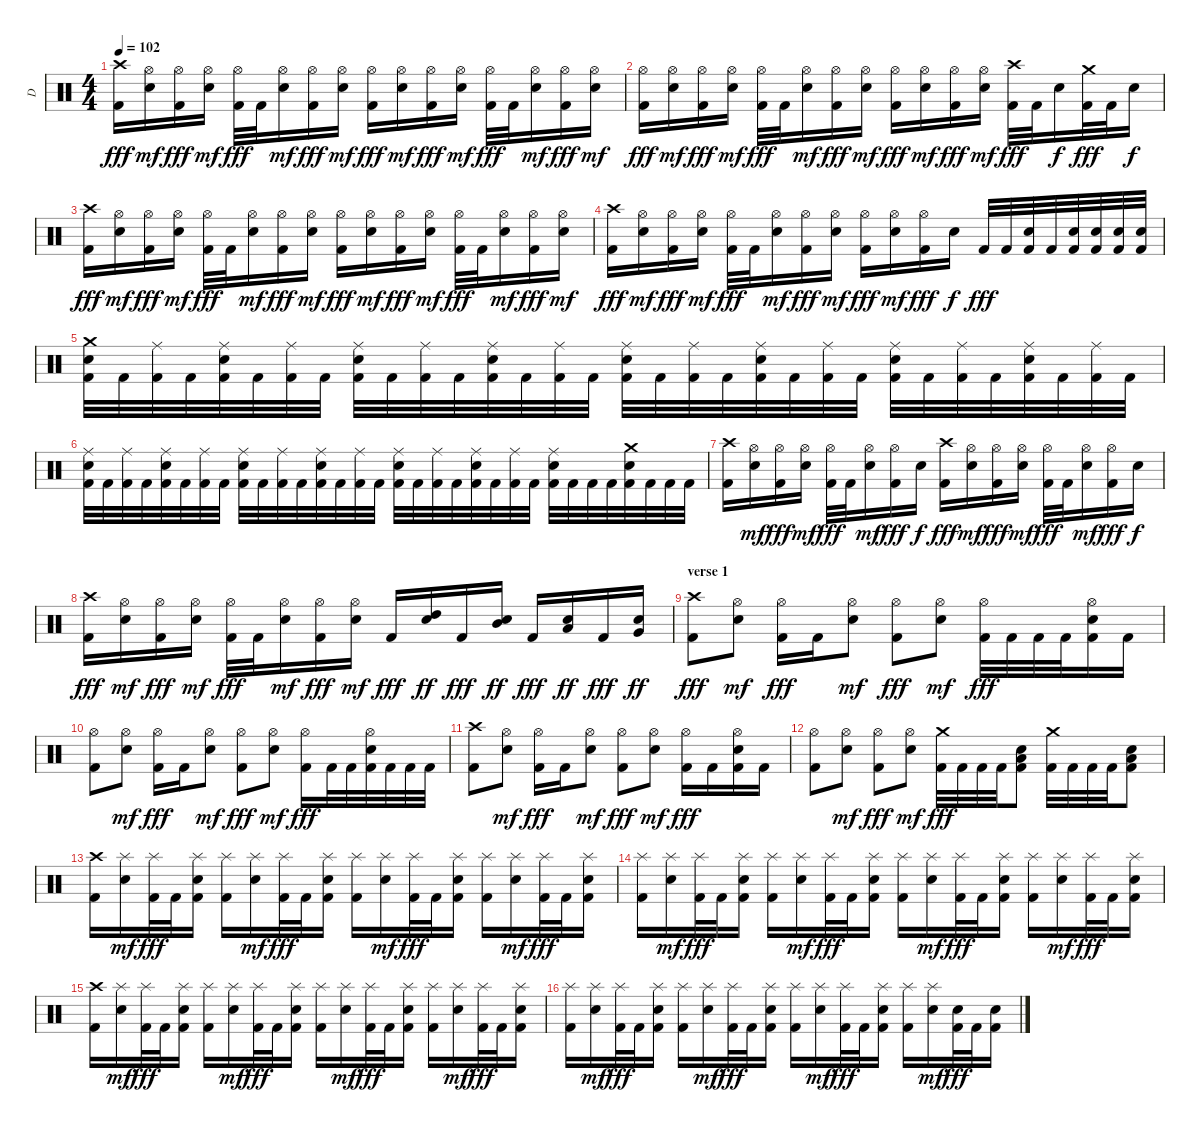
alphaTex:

\track ("D" "D") {instrument percussion}
\staff {score}
\articulation defaults
\ts (4 4)
\section ("" "")
\tempo 102
\clef neutral
\ks c
("Crash high (hit)" "Kick (hit) 2").16{dy fff} ("Hi-Hat (open)" "Snare (hit) 2").16{dy mf} ("Hi-Hat (open)" "Kick (hit) 2").16{dy fff} ("Hi-Hat (open)" "Snare (hit) 2").16{dy mf} ("Hi-Hat (open)" "Kick (hit) 2").32{dy fff} "Kick (hit) 2".32 ("Hi-Hat (open)" "Snare (hit) 2").16{dy mf} ("Hi-Hat (open)" "Kick (hit) 2").16{dy fff} ("Hi-Hat (open)" "Snare (hit) 2").16{dy mf} ("Hi-Hat (open)" "Kick (hit) 2").16{dy fff} ("Hi-Hat (open)" "Snare (hit) 2").16{dy mf} ("Hi-Hat (open)" "Kick (hit) 2").16{dy fff} ("Hi-Hat (open)" "Snare (hit) 2").16{dy mf} ("Hi-Hat (open)" "Kick (hit) 2").32{dy fff} "Kick (hit) 2".32 ("Hi-Hat (open)" "Snare (hit) 2").16{dy mf} ("Hi-Hat (open)" "Kick (hit) 2").16{dy fff} ("Hi-Hat (open)" "Snare (hit) 2").16{dy mf} |
("Hi-Hat (open)" "Kick (hit) 2").16{dy fff} ("Hi-Hat (open)" "Snare (hit) 2").16{dy mf} ("Hi-Hat (open)" "Kick (hit) 2").16{dy fff} ("Hi-Hat (open)" "Snare (hit) 2").16{dy mf} ("Hi-Hat (open)" "Kick (hit) 2").32{dy fff} "Kick (hit) 2".32 ("Hi-Hat (open)" "Snare (hit) 2").16{dy mf} ("Hi-Hat (open)" "Kick (hit) 2").16{dy fff} ("Hi-Hat (open)" "Snare (hit) 2").16{dy mf} ("Hi-Hat (open)" "Kick (hit) 2").16{dy fff} ("Hi-Hat (open)" "Snare (hit) 2").16{dy mf} ("Hi-Hat (open)" "Kick (hit) 2").16{dy fff} ("Hi-Hat (open)" "Snare (hit) 2").16{dy mf} ("Crash high (hit)" "Kick (hit) 2").32{dy fff} "Kick (hit) 2".32 "Snare (hit) 2".16{dy f} ("Crash medium (hit)" "Kick (hit) 2").32{dy fff} "Kick (hit) 2".32 "Snare (hit) 2".16{dy f} |
("Crash high (hit)" "Kick (hit) 2").16{dy fff} ("Hi-Hat (open)" "Snare (hit) 2").16{dy mf} ("Hi-Hat (open)" "Kick (hit) 2").16{dy fff} ("Hi-Hat (open)" "Snare (hit) 2").16{dy mf} ("Hi-Hat (open)" "Kick (hit) 2").32{dy fff} "Kick (hit) 2".32 ("Hi-Hat (open)" "Snare (hit) 2").16{dy mf} ("Hi-Hat (open)" "Kick (hit) 2").16{dy fff} ("Hi-Hat (open)" "Snare (hit) 2").16{dy mf} ("Hi-Hat (open)" "Kick (hit) 2").16{dy fff} ("Hi-Hat (open)" "Snare (hit) 2").16{dy mf} ("Hi-Hat (open)" "Kick (hit) 2").16{dy fff} ("Hi-Hat (open)" "Snare (hit) 2").16{dy mf} ("Hi-Hat (open)" "Kick (hit) 2").32{dy fff} "Kick (hit) 2".32 ("Hi-Hat (open)" "Snare (hit) 2").16{dy mf} ("Hi-Hat (open)" "Kick (hit) 2").16{dy fff} ("Hi-Hat (open)" "Snare (hit) 2").16{dy mf} |
("Crash high (hit)" "Kick (hit) 2").16{dy fff} ("Hi-Hat (open)" "Snare (hit) 2").16{dy mf} ("Hi-Hat (open)" "Kick (hit) 2").16{dy fff} ("Hi-Hat (open)" "Snare (hit) 2").16{dy mf} ("Hi-Hat (open)" "Kick (hit) 2").32{dy fff} "Kick (hit) 2".32 ("Hi-Hat (open)" "Snare (hit) 2").16{dy mf} ("Hi-Hat (open)" "Kick (hit) 2").16{dy fff} ("Hi-Hat (open)" "Snare (hit) 2").16{dy mf} ("Hi-Hat (open)" "Kick (hit) 2").16{dy fff} ("Hi-Hat (open)" "Snare (hit) 2").16{dy mf} ("Hi-Hat (open)" "Kick (hit) 2").16{dy fff} "Snare (hit) 2".16{dy f} "Kick (hit) 2".32{dy fff} "Kick (hit) 2".32 ("Snare (hit) 2" "Kick (hit) 2").32 "Kick (hit) 2".32 ("Snare (hit) 2" "Kick (hit) 2").32 ("Snare (hit) 2" "Kick (hit) 2").32 ("Snare (hit) 2" "Kick (hit) 2").32 ("Snare (hit) 2" "Kick (hit) 2").32 |
("Crash medium (hit)" "Snare (hit) 2" "Kick (hit) 2").32 "Kick (hit) 2".32 ("Ride (middle)" "Kick (hit) 2").32 "Kick (hit) 2".32 ("Ride (middle)" "Snare (hit) 2" "Kick (hit) 2").32 "Kick (hit) 2".32 ("Ride (middle)" "Kick (hit) 2").32 "Kick (hit) 2".32 ("Ride (middle)" "Snare (hit) 2" "Kick (hit) 2").32 "Kick (hit) 2".32 ("Ride (middle)" "Kick (hit) 2").32 "Kick (hit) 2".32 ("Ride (middle)" "Snare (hit) 2" "Kick (hit) 2").32 "Kick (hit) 2".32 ("Ride (middle)" "Kick (hit) 2").32 "Kick (hit) 2".32 ("Ride (middle)" "Snare (hit) 2" "Kick (hit) 2").32 "Kick (hit) 2".32 ("Ride (middle)" "Kick (hit) 2").32 "Kick (hit) 2".32 ("Ride (middle)" "Snare (hit) 2" "Kick (hit) 2").32 "Kick (hit) 2".32 ("Ride (middle)" "Kick (hit) 2").32 "Kick (hit) 2".32 ("Ride (middle)" "Snare (hit) 2" "Kick (hit) 2").32 "Kick (hit) 2".32 ("Ride (middle)" "Kick (hit) 2").32 "Kick (hit) 2".32 ("Ride (middle)" "Snare (hit) 2" "Kick (hit) 2").32 "Kick (hit) 2".32 ("Ride (middle)" "Kick (hit) 2").32 "Kick (hit) 2".32 |
("Ride (middle)" "Snare (hit) 2" "Kick (hit) 2").32 "Kick (hit) 2".32 ("Ride (middle)" "Kick (hit) 2").32 "Kick (hit) 2".32 ("Ride (middle)" "Snare (hit) 2" "Kick (hit) 2").32 "Kick (hit) 2".32 ("Ride (middle)" "Kick (hit) 2").32 "Kick (hit) 2".32 ("Ride (middle)" "Snare (hit) 2" "Kick (hit) 2").32 "Kick (hit) 2".32 ("Ride (middle)" "Kick (hit) 2").32 "Kick (hit) 2".32 ("Ride (middle)" "Snare (hit) 2" "Kick (hit) 2").32 "Kick (hit) 2".32 ("Ride (middle)" "Kick (hit) 2").32 "Kick (hit) 2".32 ("Ride (middle)" "Snare (hit) 2" "Kick (hit) 2").32 "Kick (hit) 2".32 ("Ride (middle)" "Kick (hit) 2").32 "Kick (hit) 2".32 ("Ride (middle)" "Snare (hit) 2" "Kick (hit) 2").32 "Kick (hit) 2".32 ("Ride (middle)" "Kick (hit) 2").32 "Kick (hit) 2".32 ("Ride (middle)" "Snare (hit) 2" "Kick (hit) 2").32 "Kick (hit) 2".32 "Kick (hit) 2".32 "Kick (hit) 2".32 ("Crash medium (hit)" "Snare (hit) 2" "Kick (hit) 2").32 "Kick (hit) 2".32 "Kick (hit) 2".32 "Kick (hit) 2".32 |
("Crash high (hit)" "Kick (hit) 2").16 ("Hi-Hat (open)" "Snare (hit) 2").16{dy mf} ("Hi-Hat (open)" "Kick (hit) 2").16{dy fff} ("Hi-Hat (open)" "Snare (hit) 2").16{dy mf} ("Hi-Hat (open)" "Kick (hit) 2").32{dy fff} "Kick (hit) 2".32 ("Hi-Hat (open)" "Snare (hit) 2").16{dy mf} ("Hi-Hat (open)" "Kick (hit) 2").16{dy fff} "Snare (hit) 2".16{dy f} ("Crash high (hit)" "Kick (hit) 2").16{dy fff} ("Hi-Hat (open)" "Snare (hit) 2").16{dy mf} ("Hi-Hat (open)" "Kick (hit) 2").16{dy fff} ("Hi-Hat (open)" "Snare (hit) 2").16{dy mf} ("Hi-Hat (open)" "Kick (hit) 2").32{dy fff} "Kick (hit) 2".32 ("Hi-Hat (open)" "Snare (hit) 2").16{dy mf} ("Hi-Hat (open)" "Kick (hit) 2").16{dy fff} "Snare (hit) 2".16{dy f} |
("Crash high (hit)" "Kick (hit) 2").16{dy fff} ("Hi-Hat (open)" "Snare (hit) 2").16{dy mf} ("Hi-Hat (open)" "Kick (hit) 2").16{dy fff} ("Hi-Hat (open)" "Snare (hit) 2").16{dy mf} ("Hi-Hat (open)" "Kick (hit) 2").32{dy fff} "Kick (hit) 2".32 ("Hi-Hat (open)" "Snare (hit) 2").16{dy mf} ("Hi-Hat (open)" "Kick (hit) 2").16{dy fff} ("Hi-Hat (open)" "Snare (hit) 2").16{dy mf} "Kick (hit) 2".16{dy fff} ("High Tom (hit)" "Snare (hit) 2").16{dy ff} "Kick (hit) 2".16{dy fff} ("Mid Tom (hit)" "Snare (hit) 2").16{dy ff} "Kick (hit) 2".16{dy fff} ("Low Tom (hit)" "Snare (hit) 2").16{dy ff} "Kick (hit) 2".16{dy fff} ("Very Low Tom (hit)" "Snare (hit) 2").16{dy ff} |
\section ("" "verse 1")
("Crash high (hit)" "Kick (hit) 2").8{dy fff} ("Hi-Hat (open)" "Snare (hit) 2").8{dy mf} ("Hi-Hat (open)" "Kick (hit) 2").16{dy fff} "Kick (hit) 2".16 ("Hi-Hat (open)" "Snare (hit) 2").8{dy mf} ("Hi-Hat (open)" "Kick (hit) 2").8{dy fff} ("Hi-Hat (open)" "Snare (hit) 2").8{dy mf} ("Hi-Hat (open)" "Kick (hit) 2").32{dy fff} "Kick (hit) 2".32 "Kick (hit) 2".32 "Kick (hit) 2".32 ("Hi-Hat (open)" "Snare (hit) 2" "Kick (hit) 2").16 "Kick (hit) 2".16 |
("Hi-Hat (open)" "Kick (hit) 2").8 ("Hi-Hat (open)" "Snare (hit) 2").8{dy mf} ("Hi-Hat (open)" "Kick (hit) 2").16{dy fff} "Kick (hit) 2".16 ("Hi-Hat (open)" "Snare (hit) 2").8{dy mf} ("Hi-Hat (open)" "Kick (hit) 2").8{dy fff} ("Hi-Hat (open)" "Snare (hit) 2").8{dy mf} ("Hi-Hat (open)" "Kick (hit) 2").16{dy fff} "Kick (hit) 2".32 "Kick (hit) 2".32 ("Hi-Hat (open)" "Snare (hit) 2" "Kick (hit) 2").32 "Kick (hit) 2".32 "Kick (hit) 2".32 "Kick (hit) 2".32 |
("Crash high (hit)" "Kick (hit) 2").8 ("Hi-Hat (open)" "Snare (hit) 2").8{dy mf} ("Hi-Hat (open)" "Kick (hit) 2").16{dy fff} "Kick (hit) 2".16 ("Hi-Hat (open)" "Snare (hit) 2").8{dy mf} ("Hi-Hat (open)" "Kick (hit) 2").8{dy fff} ("Hi-Hat (open)" "Snare (hit) 2").8{dy mf} ("Hi-Hat (open)" "Kick (hit) 2").16{dy fff} "Kick (hit) 2".16 ("Hi-Hat (open)" "Snare (hit) 2" "Kick (hit) 2").16 "Kick (hit) 2".16 |
("Hi-Hat (open)" "Kick (hit) 2").8 ("Hi-Hat (open)" "Snare (hit) 2").8{dy mf} ("Hi-Hat (open)" "Kick (hit) 2").8{dy fff} ("Hi-Hat (open)" "Snare (hit) 2").8{dy mf} ("Crash medium (hit)" "Kick (hit) 2").32{dy fff} "Kick (hit) 2".32 "Kick (hit) 2".32 "Kick (hit) 2".32 ("Low Tom (hit)" "Snare (hit) 2" "Kick (hit) 2").8 ("Crash medium (hit)" "Kick (hit) 2").32 "Kick (hit) 2".32 "Kick (hit) 2".32 "Kick (hit) 2".32 ("Low Tom (hit)" "Snare (hit) 2" "Kick (hit) 2").8 |
("Crash high (hit)" "Kick (hit) 2").16 ("Splash (hit)" "Snare (hit) 2").16{dy mf} ("Splash (hit)" "Kick (hit) 2").32{dy fff} "Kick (hit) 2".32 ("Splash (hit)" "Snare (hit) 2" "Kick (hit) 2").16 ("Splash (hit)" "Kick (hit) 2").16 ("Splash (hit)" "Snare (hit) 2").16{dy mf} ("Splash (hit)" "Kick (hit) 2").32{dy fff} "Kick (hit) 2".32 ("Splash (hit)" "Snare (hit) 2" "Kick (hit) 2").16 ("Splash (hit)" "Kick (hit) 2").16 ("Splash (hit)" "Snare (hit) 2").16{dy mf} ("Splash (hit)" "Kick (hit) 2").32{dy fff} "Kick (hit) 2".32 ("Splash (hit)" "Snare (hit) 2" "Kick (hit) 2").16 ("Splash (hit)" "Kick (hit) 2").16 ("Splash (hit)" "Snare (hit) 2").16{dy mf} ("Splash (hit)" "Kick (hit) 2").32{dy fff} "Kick (hit) 2".32 ("Splash (hit)" "Snare (hit) 2" "Kick (hit) 2").16 |
("Splash (hit)" "Kick (hit) 2").16 ("Splash (hit)" "Snare (hit) 2").16{dy mf} ("Splash (hit)" "Kick (hit) 2").32{dy fff} "Kick (hit) 2".32 ("Splash (hit)" "Snare (hit) 2" "Kick (hit) 2").16 ("Splash (hit)" "Kick (hit) 2").16 ("Splash (hit)" "Snare (hit) 2").16{dy mf} ("Splash (hit)" "Kick (hit) 2").32{dy fff} "Kick (hit) 2".32 ("Splash (hit)" "Snare (hit) 2" "Kick (hit) 2").16 ("Splash (hit)" "Kick (hit) 2").16 ("Splash (hit)" "Snare (hit) 2").16{dy mf} ("Splash (hit)" "Kick (hit) 2").32{dy fff} "Kick (hit) 2".32 ("Splash (hit)" "Snare (hit) 2" "Kick (hit) 2").16 ("Splash (hit)" "Kick (hit) 2").16 ("Splash (hit)" "Snare (hit) 2").16{dy mf} ("Splash (hit)" "Kick (hit) 2").32{dy fff} "Kick (hit) 2".32 ("Splash (hit)" "Snare (hit) 2" "Kick (hit) 2").16 |
("Crash high (hit)" "Kick (hit) 2").16 ("Splash (hit)" "Snare (hit) 2").16{dy mf} ("Splash (hit)" "Kick (hit) 2").32{dy fff} "Kick (hit) 2".32 ("Splash (hit)" "Snare (hit) 2" "Kick (hit) 2").16 ("Splash (hit)" "Kick (hit) 2").16 ("Splash (hit)" "Snare (hit) 2").16{dy mf} ("Splash (hit)" "Kick (hit) 2").32{dy fff} "Kick (hit) 2".32 ("Splash (hit)" "Snare (hit) 2" "Kick (hit) 2").16 ("Splash (hit)" "Kick (hit) 2").16 ("Splash (hit)" "Snare (hit) 2").16{dy mf} ("Splash (hit)" "Kick (hit) 2").32{dy fff} "Kick (hit) 2".32 ("Splash (hit)" "Snare (hit) 2" "Kick (hit) 2").16 ("Splash (hit)" "Kick (hit) 2").16 ("Splash (hit)" "Snare (hit) 2").16{dy mf} ("Splash (hit)" "Kick (hit) 2").32{dy fff} "Kick (hit) 2".32 ("Splash (hit)" "Snare (hit) 2" "Kick (hit) 2").16 |
("Splash (hit)" "Kick (hit) 2").16 ("Splash (hit)" "Snare (hit) 2").16{dy mf} ("Splash (hit)" "Kick (hit) 2").32{dy fff} "Kick (hit) 2".32 ("Splash (hit)" "Snare (hit) 2" "Kick (hit) 2").16 ("Splash (hit)" "Kick (hit) 2").16 ("Splash (hit)" "Snare (hit) 2").16{dy mf} ("Splash (hit)" "Kick (hit) 2").32{dy fff} "Kick (hit) 2".32 ("Splash (hit)" "Snare (hit) 2" "Kick (hit) 2").16 ("Splash (hit)" "Kick (hit) 2").16 ("Splash (hit)" "Snare (hit) 2").16{dy mf} ("Splash (hit)" "Kick (hit) 2").32{dy fff} "Kick (hit) 2".32 ("Splash (hit)" "Snare (hit) 2" "Kick (hit) 2").16 ("Splash (hit)" "Kick (hit) 2").16 ("Splash (hit)" "Snare (hit) 2").16{dy mf} ("Snare (hit) 2" "Kick (hit) 2").32{dy fff} "Kick (hit) 2".32 ("Snare (hit) 2" "Kick (hit) 2").16
